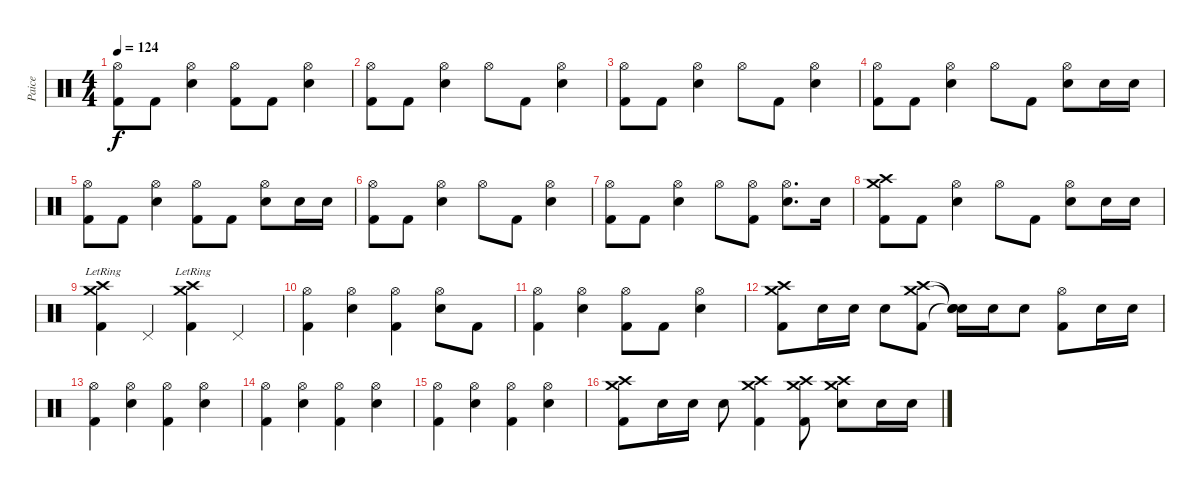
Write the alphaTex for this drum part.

\track ("Paice" "Paice") {instrument percussion}
\staff {score}
\articulation defaults
\ts (4 4)
\tempo 124
\clef neutral
\ks c
("Hi-Hat (open)" "Kick (hit) 2").8{dy f} "Kick (hit) 2".8 ("Hi-Hat (open)" "Electric Snare (hit)").4 ("Hi-Hat (open)" "Kick (hit) 2").8 "Kick (hit) 2".8 ("Hi-Hat (open)" "Electric Snare (hit)").4 |
("Hi-Hat (open)" "Kick (hit) 2").8 "Kick (hit) 2".8 ("Hi-Hat (open)" "Electric Snare (hit)").4 "Hi-Hat (open)".8 "Kick (hit) 2".8 ("Hi-Hat (open)" "Electric Snare (hit)").4 |
("Hi-Hat (open)" "Kick (hit) 2").8 "Kick (hit) 2".8 ("Hi-Hat (open)" "Electric Snare (hit)").4 "Hi-Hat (open)".8 "Kick (hit) 2".8 ("Hi-Hat (open)" "Electric Snare (hit)").4 |
("Hi-Hat (open)" "Kick (hit) 2").8 "Kick (hit) 2".8 ("Hi-Hat (open)" "Electric Snare (hit)").4 "Hi-Hat (open)".8 "Kick (hit) 2".8 ("Hi-Hat (open)" "Electric Snare (hit)").8 "Electric Snare (hit)".16 "Electric Snare (hit)".16 |
("Hi-Hat (open)" "Kick (hit) 2").8 "Kick (hit) 2".8 ("Hi-Hat (open)" "Electric Snare (hit)").4 ("Hi-Hat (open)" "Kick (hit) 2").8 "Kick (hit) 2".8 ("Hi-Hat (open)" "Electric Snare (hit)").8 "Electric Snare (hit)".16 "Electric Snare (hit)".16 |
("Hi-Hat (open)" "Kick (hit) 2").8 "Kick (hit) 2".8 ("Hi-Hat (open)" "Electric Snare (hit)").4 "Hi-Hat (open)".8 "Kick (hit) 2".8 ("Hi-Hat (open)" "Electric Snare (hit)").4 |
("Hi-Hat (open)" "Kick (hit) 2").8 "Kick (hit) 2".8 ("Hi-Hat (open)" "Electric Snare (hit)").4 "Hi-Hat (open)".8 ("Hi-Hat (open)" "Kick (hit) 2").8 ("Hi-Hat (open)" "Electric Snare (hit)").8{d} "Electric Snare (hit)".16 |
("Crash high (hit)" "Crash medium (hit)" "Kick (hit) 2").8 "Kick (hit) 2".8 ("Hi-Hat (open)" "Electric Snare (hit)").4 "Hi-Hat (open)".8 "Kick (hit) 2".8 ("Hi-Hat (open)" "Electric Snare (hit)").8 "Electric Snare (hit)".16 "Electric Snare (hit)".16 |
("Crash high (hit)"{lr} "Crash medium (hit)"{lr} "Kick (hit) 2").4 "Pedal Hi-Hat (hit)".4 ("Crash high (hit)"{lr} "Crash medium (hit)"{lr} "Kick (hit) 2").4 "Pedal Hi-Hat (hit)".4 |
("Hi-Hat (open)" "Kick (hit) 2").4 ("Hi-Hat (open)" "Electric Snare (hit)").4 ("Hi-Hat (open)" "Kick (hit) 2").4 ("Hi-Hat (open)" "Electric Snare (hit)").8 "Kick (hit) 2".8 |
("Hi-Hat (open)" "Kick (hit) 2").4 ("Hi-Hat (open)" "Electric Snare (hit)").4 ("Hi-Hat (open)" "Kick (hit) 2").8 "Kick (hit) 2".8 ("Hi-Hat (open)" "Electric Snare (hit)").4 |
("Crash high (hit)" "Crash medium (hit)" "Kick (hit) 2").8 "Electric Snare (hit)".16 "Electric Snare (hit)".16 "Electric Snare (hit)".8 ("Crash high (hit)" "Crash medium (hit)" "Kick (hit) 2").8 ("Snare (hit)"{t} "Snare (hit)"{t} "Snare (hit)"{t}).16 "Electric Snare (hit)".16 "Electric Snare (hit)".8 ("Hi-Hat (open)" "Kick (hit) 2").8 "Electric Snare (hit)".16 "Electric Snare (hit)".16 |
("Hi-Hat (open)" "Kick (hit) 2").4 ("Hi-Hat (open)" "Electric Snare (hit)").4 ("Hi-Hat (open)" "Kick (hit) 2").4 ("Hi-Hat (open)" "Electric Snare (hit)").4 |
("Hi-Hat (open)" "Kick (hit) 2").4 ("Hi-Hat (open)" "Electric Snare (hit)").4 ("Hi-Hat (open)" "Kick (hit) 2").4 ("Hi-Hat (open)" "Electric Snare (hit)").4 |
("Hi-Hat (open)" "Kick (hit) 2").4 ("Hi-Hat (open)" "Electric Snare (hit)").4 ("Hi-Hat (open)" "Kick (hit) 2").4 ("Hi-Hat (open)" "Electric Snare (hit)").4 |
("Crash high (hit)" "Crash medium (hit)" "Kick (hit) 2").8 "Electric Snare (hit)".16 "Electric Snare (hit)".16 "Electric Snare (hit)".8 ("Crash high (hit)" "Crash medium (hit)" "Kick (hit) 2").4 ("Crash high (hit)" "Crash medium (hit)" "Kick (hit) 2").8 ("Crash high (hit)" "Crash medium (hit)" "Electric Snare (hit)").8 "Electric Snare (hit)".16 "Electric Snare (hit)".16
